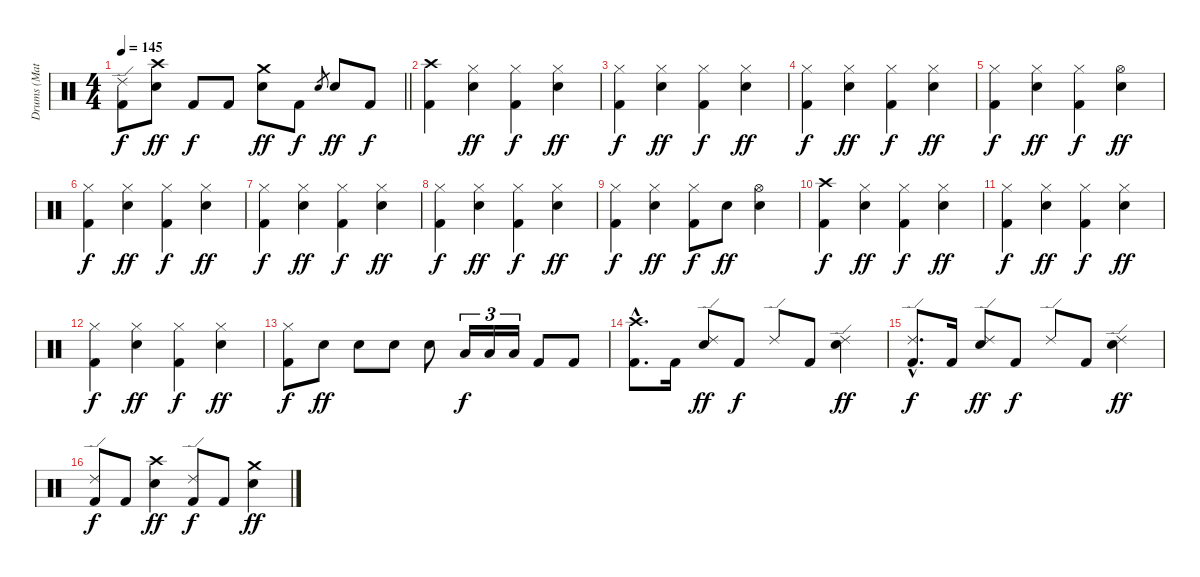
\track ("Drums (Matt)" "Drums (Mat") {instrument percussion}
\staff {score}
\articulation defaults
\ts (4 4)
\tempo 145
\clef neutral
\barLineRight lightlight
\ks c
("Ride (edge) 2" "Kick (hit) 2").8{dy f} ("Crash high (hit)" "Snare (hit) 2").8{dy ff} "Kick (hit) 2".8{dy f} "Kick (hit) 2".8 ("Crash medium (hit)" "Snare (hit) 2").8{dy ff} "Kick (hit) 2".8{dy f} "Snare (hit) 2".8{gr} "Snare (hit) 2".8{dy ff} "Kick (hit) 2".8{dy f} |
("Crash high (hit)" "Kick (hit) 2").4 ("Hi-Hat (closed)" "Snare (hit) 2").4{dy ff} ("Hi-Hat (closed)" "Kick (hit) 2").4{dy f} ("Hi-Hat (closed)" "Snare (hit) 2").4{dy ff} |
("Hi-Hat (closed)" "Kick (hit) 2").4{dy f} ("Hi-Hat (closed)" "Snare (hit) 2").4{dy ff} ("Hi-Hat (closed)" "Kick (hit) 2").4{dy f} ("Hi-Hat (closed)" "Snare (hit) 2").4{dy ff} |
("Hi-Hat (closed)" "Kick (hit) 2").4{dy f} ("Hi-Hat (closed)" "Snare (hit) 2").4{dy ff} ("Hi-Hat (closed)" "Kick (hit) 2").4{dy f} ("Hi-Hat (closed)" "Snare (hit) 2").4{dy ff} |
("Hi-Hat (closed)" "Kick (hit) 2").4{dy f} ("Hi-Hat (closed)" "Snare (hit) 2").4{dy ff} ("Hi-Hat (closed)" "Kick (hit) 2").4{dy f} ("Hi-Hat (open)" "Snare (hit) 2").4{dy ff} |
("Hi-Hat (closed)" "Kick (hit) 2").4{dy f} ("Hi-Hat (closed)" "Snare (hit) 2").4{dy ff} ("Hi-Hat (closed)" "Kick (hit) 2").4{dy f} ("Hi-Hat (closed)" "Snare (hit) 2").4{dy ff} |
("Hi-Hat (closed)" "Kick (hit) 2").4{dy f} ("Hi-Hat (closed)" "Snare (hit) 2").4{dy ff} ("Hi-Hat (closed)" "Kick (hit) 2").4{dy f} ("Hi-Hat (closed)" "Snare (hit) 2").4{dy ff} |
("Hi-Hat (closed)" "Kick (hit) 2").4{dy f} ("Hi-Hat (closed)" "Snare (hit) 2").4{dy ff} ("Hi-Hat (closed)" "Kick (hit) 2").4{dy f} ("Hi-Hat (closed)" "Snare (hit) 2").4{dy ff} |
("Hi-Hat (closed)" "Kick (hit) 2").4{dy f} ("Hi-Hat (closed)" "Snare (hit) 2").4{dy ff} ("Hi-Hat (closed)" "Kick (hit) 2").8{dy f} "Snare (hit) 2".8{dy ff} ("Hi-Hat (open)" "Snare (hit) 2").4 |
("Crash high (hit)" "Kick (hit) 2").4{dy f} ("Hi-Hat (closed)" "Snare (hit) 2").4{dy ff} ("Hi-Hat (closed)" "Kick (hit) 2").4{dy f} ("Hi-Hat (closed)" "Snare (hit) 2").4{dy ff} |
("Hi-Hat (closed)" "Kick (hit) 2").4{dy f} ("Hi-Hat (closed)" "Snare (hit) 2").4{dy ff} ("Hi-Hat (closed)" "Kick (hit) 2").4{dy f} ("Hi-Hat (closed)" "Snare (hit) 2").4{dy ff} |
("Hi-Hat (closed)" "Kick (hit) 2").4{dy f} ("Hi-Hat (closed)" "Snare (hit) 2").4{dy ff} ("Hi-Hat (closed)" "Kick (hit) 2").4{dy f} ("Hi-Hat (closed)" "Snare (hit) 2").4{dy ff} |
("Hi-Hat (closed)" "Kick (hit) 2").8{dy f} "Snare (hit) 2".8{dy ff} "Snare (hit) 2".8 "Snare (hit) 2".8 "Snare (hit) 2".8 "Low Tom (hit)".16{tu (3 2) dy f} "Low Tom (hit)".16{tu (3 2)} "Low Tom (hit)".16{tu (3 2)} "Kick (hit) 2".8 "Kick (hit) 2".8 |
("Crash high (hit)"{hac} "Kick (hit) 2"{hac}).8{d} "Kick (hit) 2".16 ("Ride (edge) 2" "Snare (hit) 2").8{dy ff} "Kick (hit) 2".8{dy f} "Ride (edge) 2".8 "Kick (hit) 2".8 ("Ride (edge) 2" "Snare (hit) 2").4{dy ff} |
("Ride (edge) 2"{hac} "Kick (hit) 2"{hac}).8{d dy f} "Kick (hit) 2".16 ("Ride (edge) 2" "Snare (hit) 2").8{dy ff} "Kick (hit) 2".8{dy f} "Ride (edge) 2".8 "Kick (hit) 2".8 ("Ride (edge) 2" "Snare (hit) 2").4{dy ff} |
("Ride (edge) 2" "Kick (hit) 2").8{dy f} "Kick (hit) 2".8 ("Crash high (hit)" "Snare (hit) 2").4{dy ff} ("Ride (edge) 2" "Kick (hit) 2").8{dy f} "Kick (hit) 2".8 ("Crash medium (hit)" "Snare (hit) 2").4{dy ff}
